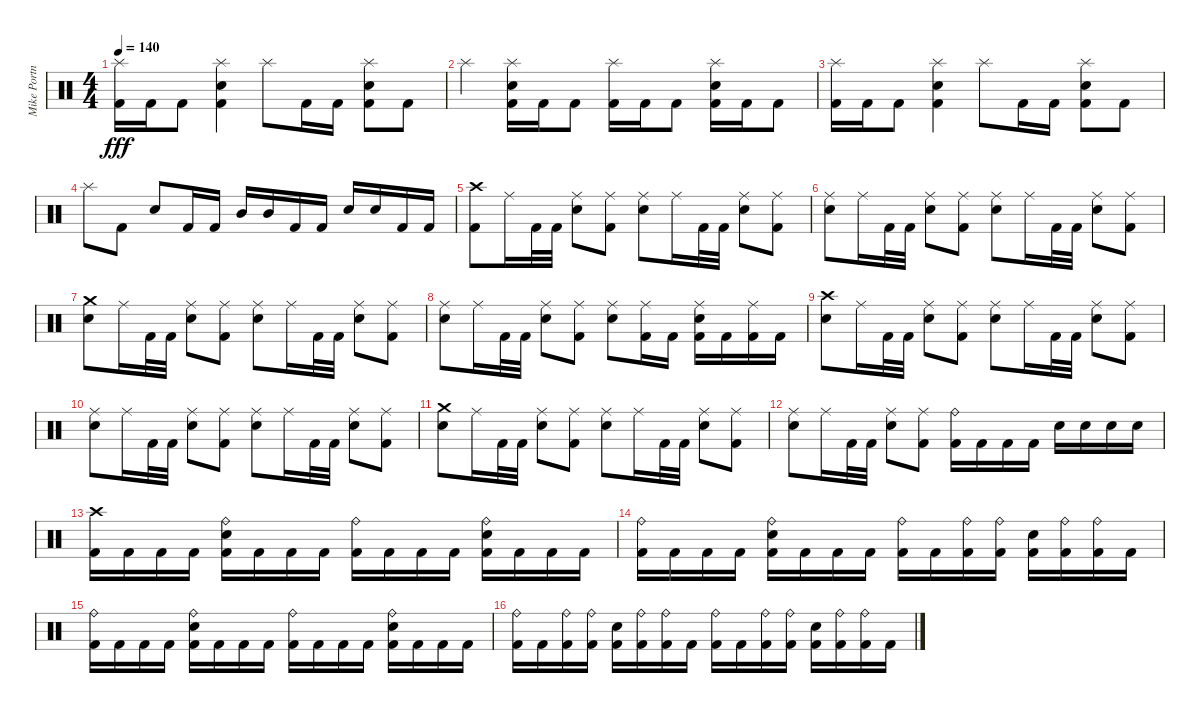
\track ("Mike Portnoy" "Mike Portn") {instrument percussion}
\staff {score}
\articulation defaults
\ts (4 4)
\tempo 140
\clef neutral
\ks c
("Splash (hit)" "Kick (hit) 2").16{dy fff} "Kick (hit) 2".16 "Kick (hit) 2".8 ("Splash (hit)" "Snare (hit) 2" "Kick (hit) 2").4 "Splash (hit)".8 "Kick (hit) 2".16 "Kick (hit) 2".16 ("Splash (hit)" "Snare (hit) 2" "Kick (hit) 2").8 "Kick (hit) 2".8 |
"Splash (hit)".4 ("Splash (hit)" "Snare (hit) 2" "Kick (hit) 2").16 "Kick (hit) 2".16 "Kick (hit) 2".8 ("Splash (hit)" "Kick (hit) 2").16 "Kick (hit) 2".16 "Kick (hit) 2".8 ("Splash (hit)" "Snare (hit) 2" "Kick (hit) 2").16 "Kick (hit) 2".16 "Kick (hit) 2".8 |
("Splash (hit)" "Kick (hit) 2").16 "Kick (hit) 2".16 "Kick (hit) 2".8 ("Splash (hit)" "Snare (hit) 2" "Kick (hit) 2").4 "Splash (hit)".8 "Kick (hit) 2".16 "Kick (hit) 2".16 ("Splash (hit)" "Snare (hit) 2" "Kick (hit) 2").8 "Kick (hit) 2".8 |
"Splash (hit)".8 "Kick (hit) 2".8 "Snare (hit) 2".8 "Kick (hit) 2".16 "Kick (hit) 2".16 "Mid Tom (hit)".16 "Mid Tom (hit)".16 "Kick (hit) 2".16 "Kick (hit) 2".16 "Snare (hit) 2".16 "Snare (hit) 2".16 "Kick (hit) 2".16 "Kick (hit) 2".16 |
("Crash high (hit)" "Kick (hit) 2").8 "Ride (middle)".16 "Kick (hit) 2".32 "Kick (hit) 2".32 ("Ride (middle)" "Snare (hit) 2").8 ("Ride (middle)" "Kick (hit) 2").8 ("Ride (middle)" "Snare (hit) 2").8 "Ride (middle)".16 "Kick (hit) 2".32 "Kick (hit) 2".32 ("Ride (middle)" "Snare (hit) 2").8 ("Ride (middle)" "Kick (hit) 2").8 |
("Ride (middle)" "Snare (hit) 2").8 "Ride (middle)".16 "Kick (hit) 2".32 "Kick (hit) 2".32 ("Ride (middle)" "Snare (hit) 2").8 ("Ride (middle)" "Kick (hit) 2").8 ("Ride (middle)" "Snare (hit) 2").8 "Ride (middle)".16 "Kick (hit) 2".32 "Kick (hit) 2".32 ("Ride (middle)" "Snare (hit) 2").8 ("Ride (middle)" "Kick (hit) 2").8 |
("Crash medium (hit)" "Snare (hit) 2").8 "Ride (middle)".16 "Kick (hit) 2".32 "Kick (hit) 2".32 ("Ride (middle)" "Snare (hit) 2").8 ("Ride (middle)" "Kick (hit) 2").8 ("Ride (middle)" "Snare (hit) 2").8 "Ride (middle)".16 "Kick (hit) 2".32 "Kick (hit) 2".32 ("Ride (middle)" "Snare (hit) 2").8 ("Ride (middle)" "Kick (hit) 2").8 |
("Ride (middle)" "Snare (hit) 2").8 "Ride (middle)".16 "Kick (hit) 2".32 "Kick (hit) 2".32 ("Ride (middle)" "Snare (hit) 2").8 ("Ride (middle)" "Kick (hit) 2").8 ("Ride (middle)" "Snare (hit) 2").8 ("Ride (middle)" "Kick (hit) 2").16 "Kick (hit) 2".16 ("Ride (middle)" "Snare (hit) 2" "Kick (hit) 2").16 "Kick (hit) 2".16 ("Ride (middle)" "Kick (hit) 2").16 "Kick (hit) 2".16 |
("Crash high (hit)" "Snare (hit) 2").8 "Ride (middle)".16 "Kick (hit) 2".32 "Kick (hit) 2".32 ("Ride (middle)" "Snare (hit) 2").8 ("Ride (middle)" "Kick (hit) 2").8 ("Ride (middle)" "Snare (hit) 2").8 "Ride (middle)".16 "Kick (hit) 2".32 "Kick (hit) 2".32 ("Ride (middle)" "Snare (hit) 2").8 ("Ride (middle)" "Kick (hit) 2").8 |
("Ride (middle)" "Snare (hit) 2").8 "Ride (middle)".16 "Kick (hit) 2".32 "Kick (hit) 2".32 ("Ride (middle)" "Snare (hit) 2").8 ("Ride (middle)" "Kick (hit) 2").8 ("Ride (middle)" "Snare (hit) 2").8 "Ride (middle)".16 "Kick (hit) 2".32 "Kick (hit) 2".32 ("Ride (middle)" "Snare (hit) 2").8 ("Ride (middle)" "Kick (hit) 2").8 |
("Crash medium (hit)" "Snare (hit) 2").8 "Ride (middle)".16 "Kick (hit) 2".32 "Kick (hit) 2".32 ("Ride (middle)" "Snare (hit) 2").8 ("Ride (middle)" "Kick (hit) 2").8 ("Ride (middle)" "Snare (hit) 2").8 "Ride (middle)".16 "Kick (hit) 2".32 "Kick (hit) 2".32 ("Ride (middle)" "Snare (hit) 2").8 ("Ride (middle)" "Kick (hit) 2").8 |
("Ride (middle)" "Snare (hit) 2").8 "Ride (middle)".16 "Kick (hit) 2".32 "Kick (hit) 2".32 ("Ride (middle)" "Snare (hit) 2").8 ("Ride (middle)" "Kick (hit) 2").8 ("Ride (bell)" "Kick (hit) 2").16 "Kick (hit) 2".16 "Kick (hit) 2".16 "Kick (hit) 2".16 "Snare (hit) 2".16 "Snare (hit) 2".16 "Snare (hit) 2".16 "Snare (hit) 2".16 |
("Crash high (hit)" "Kick (hit) 2").16 "Kick (hit) 2".16 "Kick (hit) 2".16 "Kick (hit) 2".16 ("Ride (bell)" "Snare (hit) 2" "Kick (hit) 2").16 "Kick (hit) 2".16 "Kick (hit) 2".16 "Kick (hit) 2".16 ("Ride (bell)" "Kick (hit) 2").16 "Kick (hit) 2".16 "Kick (hit) 2".16 "Kick (hit) 2".16 ("Ride (bell)" "Snare (hit) 2" "Kick (hit) 2").16 "Kick (hit) 2".16 "Kick (hit) 2".16 "Kick (hit) 2".16 |
("Ride (bell)" "Kick (hit) 2").16 "Kick (hit) 2".16 "Kick (hit) 2".16 "Kick (hit) 2".16 ("Ride (bell)" "Snare (hit) 2" "Kick (hit) 2").16 "Kick (hit) 2".16 "Kick (hit) 2".16 "Kick (hit) 2".16 ("Ride (bell)" "Kick (hit) 2").16 "Kick (hit) 2".16 ("Ride (bell)" "Kick (hit) 2").16 ("Ride (bell)" "Kick (hit) 2").16 ("Snare (hit) 2" "Kick (hit) 2").16 ("Ride (bell)" "Kick (hit) 2").16 ("Ride (bell)" "Kick (hit) 2").16 "Kick (hit) 2".16 |
("Ride (bell)" "Kick (hit) 2").16 "Kick (hit) 2".16 "Kick (hit) 2".16 "Kick (hit) 2".16 ("Ride (bell)" "Snare (hit) 2" "Kick (hit) 2").16 "Kick (hit) 2".16 "Kick (hit) 2".16 "Kick (hit) 2".16 ("Ride (bell)" "Kick (hit) 2").16 "Kick (hit) 2".16 "Kick (hit) 2".16 "Kick (hit) 2".16 ("Ride (bell)" "Snare (hit) 2" "Kick (hit) 2").16 "Kick (hit) 2".16 "Kick (hit) 2".16 "Kick (hit) 2".16 |
("Ride (bell)" "Kick (hit) 2").16 "Kick (hit) 2".16 ("Ride (bell)" "Kick (hit) 2").16 ("Ride (bell)" "Kick (hit) 2").16 ("Snare (hit) 2" "Kick (hit) 2").16 ("Ride (bell)" "Kick (hit) 2").16 ("Ride (bell)" "Kick (hit) 2").16 "Kick (hit) 2".16 ("Ride (bell)" "Kick (hit) 2").16 "Kick (hit) 2".16 ("Ride (bell)" "Kick (hit) 2").16 ("Ride (bell)" "Kick (hit) 2").16 ("Snare (hit) 2" "Kick (hit) 2").16 ("Ride (bell)" "Kick (hit) 2").16 ("Ride (bell)" "Kick (hit) 2").16 "Kick (hit) 2".16
